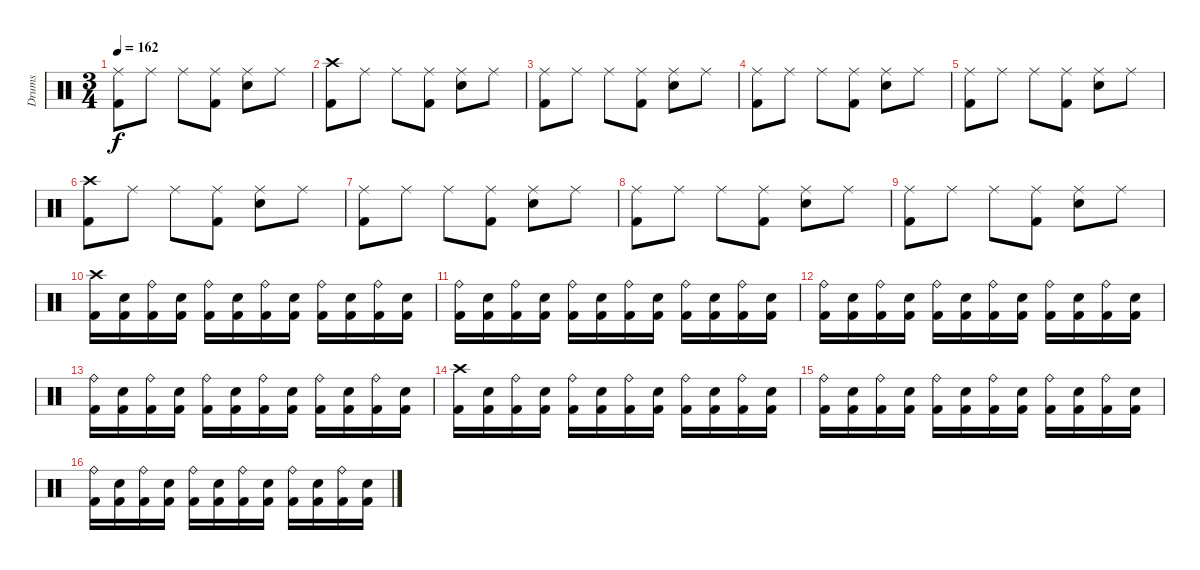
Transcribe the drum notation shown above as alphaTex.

\track ("Drums" "Drums") {instrument percussion}
\staff {score}
\articulation defaults
\ts (3 4)
\tempo 162
\clef neutral
\ks c
("Ride (middle)" "Kick (hit) 2").8{dy f} "Ride (middle)".8 "Ride (middle)".8 ("Ride (middle)" "Kick (hit) 2").8 ("Ride (middle)" "Snare (hit) 2").8 "Ride (middle)".8 |
("Crash high (hit)" "Kick (hit) 2").8 "Ride (middle)".8 "Ride (middle)".8 ("Ride (middle)" "Kick (hit) 2").8 ("Ride (middle)" "Snare (hit) 2").8 "Ride (middle)".8 |
("Ride (middle)" "Kick (hit) 2").8 "Ride (middle)".8 "Ride (middle)".8 ("Ride (middle)" "Kick (hit) 2").8 ("Ride (middle)" "Snare (hit) 2").8 "Ride (middle)".8 |
("Ride (middle)" "Kick (hit) 2").8 "Ride (middle)".8 "Ride (middle)".8 ("Ride (middle)" "Kick (hit) 2").8 ("Ride (middle)" "Snare (hit) 2").8 "Ride (middle)".8 |
("Ride (middle)" "Kick (hit) 2").8 "Ride (middle)".8 "Ride (middle)".8 ("Ride (middle)" "Kick (hit) 2").8 ("Ride (middle)" "Snare (hit) 2").8 "Ride (middle)".8 |
("Crash high (hit)" "Kick (hit) 2").8 "Ride (middle)".8 "Ride (middle)".8 ("Ride (middle)" "Kick (hit) 2").8 ("Ride (middle)" "Snare (hit) 2").8 "Ride (middle)".8 |
("Ride (middle)" "Kick (hit) 2").8 "Ride (middle)".8 "Ride (middle)".8 ("Ride (middle)" "Kick (hit) 2").8 ("Ride (middle)" "Snare (hit) 2").8 "Ride (middle)".8 |
("Ride (middle)" "Kick (hit) 2").8 "Ride (middle)".8 "Ride (middle)".8 ("Ride (middle)" "Kick (hit) 2").8 ("Ride (middle)" "Snare (hit) 2").8 "Ride (middle)".8 |
("Ride (middle)" "Kick (hit) 2").8 "Ride (middle)".8 "Ride (middle)".8 ("Ride (middle)" "Kick (hit) 2").8 ("Ride (middle)" "Snare (hit) 2").8 "Ride (middle)".8 |
("Crash high (hit)" "Kick (hit) 2").16 ("Snare (hit) 2" "Kick (hit) 2").16 ("Ride (bell)" "Kick (hit) 2").16 ("Snare (hit) 2" "Kick (hit) 2").16 ("Ride (bell)" "Kick (hit) 2").16 ("Snare (hit) 2" "Kick (hit) 2").16 ("Ride (bell)" "Kick (hit) 2").16 ("Snare (hit) 2" "Kick (hit) 2").16 ("Ride (bell)" "Kick (hit) 2").16 ("Snare (hit) 2" "Kick (hit) 2").16 ("Ride (bell)" "Kick (hit) 2").16 ("Snare (hit) 2" "Kick (hit) 2").16 |
("Ride (bell)" "Kick (hit) 2").16 ("Snare (hit) 2" "Kick (hit) 2").16 ("Ride (bell)" "Kick (hit) 2").16 ("Snare (hit) 2" "Kick (hit) 2").16 ("Ride (bell)" "Kick (hit) 2").16 ("Snare (hit) 2" "Kick (hit) 2").16 ("Ride (bell)" "Kick (hit) 2").16 ("Snare (hit) 2" "Kick (hit) 2").16 ("Ride (bell)" "Kick (hit) 2").16 ("Snare (hit) 2" "Kick (hit) 2").16 ("Ride (bell)" "Kick (hit) 2").16 ("Snare (hit) 2" "Kick (hit) 2").16 |
("Ride (bell)" "Kick (hit) 2").16 ("Snare (hit) 2" "Kick (hit) 2").16 ("Ride (bell)" "Kick (hit) 2").16 ("Snare (hit) 2" "Kick (hit) 2").16 ("Ride (bell)" "Kick (hit) 2").16 ("Snare (hit) 2" "Kick (hit) 2").16 ("Ride (bell)" "Kick (hit) 2").16 ("Snare (hit) 2" "Kick (hit) 2").16 ("Ride (bell)" "Kick (hit) 2").16 ("Snare (hit) 2" "Kick (hit) 2").16 ("Ride (bell)" "Kick (hit) 2").16 ("Snare (hit) 2" "Kick (hit) 2").16 |
("Ride (bell)" "Kick (hit) 2").16 ("Snare (hit) 2" "Kick (hit) 2").16 ("Ride (bell)" "Kick (hit) 2").16 ("Snare (hit) 2" "Kick (hit) 2").16 ("Ride (bell)" "Kick (hit) 2").16 ("Snare (hit) 2" "Kick (hit) 2").16 ("Ride (bell)" "Kick (hit) 2").16 ("Snare (hit) 2" "Kick (hit) 2").16 ("Ride (bell)" "Kick (hit) 2").16 ("Snare (hit) 2" "Kick (hit) 2").16 ("Ride (bell)" "Kick (hit) 2").16 ("Snare (hit) 2" "Kick (hit) 2").16 |
("Crash high (hit)" "Kick (hit) 2").16 ("Snare (hit) 2" "Kick (hit) 2").16 ("Ride (bell)" "Kick (hit) 2").16 ("Snare (hit) 2" "Kick (hit) 2").16 ("Ride (bell)" "Kick (hit) 2").16 ("Snare (hit) 2" "Kick (hit) 2").16 ("Ride (bell)" "Kick (hit) 2").16 ("Snare (hit) 2" "Kick (hit) 2").16 ("Ride (bell)" "Kick (hit) 2").16 ("Snare (hit) 2" "Kick (hit) 2").16 ("Ride (bell)" "Kick (hit) 2").16 ("Snare (hit) 2" "Kick (hit) 2").16 |
("Ride (bell)" "Kick (hit) 2").16 ("Snare (hit) 2" "Kick (hit) 2").16 ("Ride (bell)" "Kick (hit) 2").16 ("Snare (hit) 2" "Kick (hit) 2").16 ("Ride (bell)" "Kick (hit) 2").16 ("Snare (hit) 2" "Kick (hit) 2").16 ("Ride (bell)" "Kick (hit) 2").16 ("Snare (hit) 2" "Kick (hit) 2").16 ("Ride (bell)" "Kick (hit) 2").16 ("Snare (hit) 2" "Kick (hit) 2").16 ("Ride (bell)" "Kick (hit) 2").16 ("Snare (hit) 2" "Kick (hit) 2").16 |
("Ride (bell)" "Kick (hit) 2").16 ("Snare (hit) 2" "Kick (hit) 2").16 ("Ride (bell)" "Kick (hit) 2").16 ("Snare (hit) 2" "Kick (hit) 2").16 ("Ride (bell)" "Kick (hit) 2").16 ("Snare (hit) 2" "Kick (hit) 2").16 ("Ride (bell)" "Kick (hit) 2").16 ("Snare (hit) 2" "Kick (hit) 2").16 ("Ride (bell)" "Kick (hit) 2").16 ("Snare (hit) 2" "Kick (hit) 2").16 ("Ride (bell)" "Kick (hit) 2").16 ("Snare (hit) 2" "Kick (hit) 2").16
